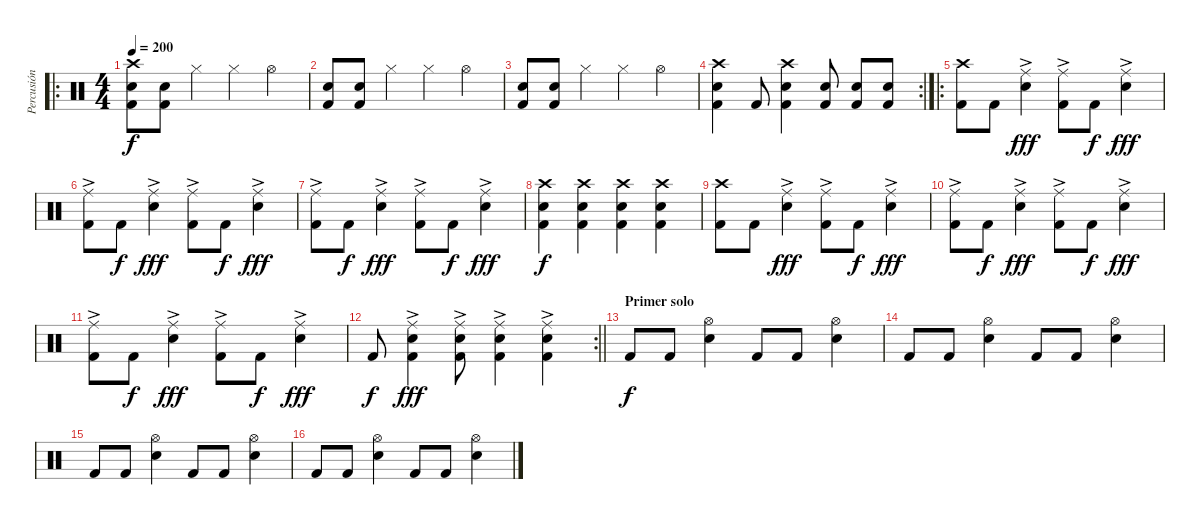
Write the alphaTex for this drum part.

\track ("Percusión" "Percusión") {instrument percussion}
\staff {score}
\articulation defaults
\ro
\ts (4 4)
\tempo 200
\clef neutral
\ks c
("Crash high (hit)" "Snare (hit) 2" "Kick (hit) 2").8{dy f} ("Snare (hit) 2" "Kick (hit) 2").8 "Hi-Hat (closed)".4 "Hi-Hat (closed)".4 "Hi-Hat (open)".4 |
("Snare (hit) 2" "Kick (hit) 2").8 ("Snare (hit) 2" "Kick (hit) 2").8 "Hi-Hat (closed)".4 "Hi-Hat (closed)".4 "Hi-Hat (open)".4 |
("Snare (hit) 2" "Kick (hit) 2").8 ("Snare (hit) 2" "Kick (hit) 2").8 "Hi-Hat (closed)".4 "Hi-Hat (closed)".4 "Hi-Hat (open)".4 |
\rc 2
("Crash high (hit)" "Snare (hit) 2" "Kick (hit) 2").4 "Kick (hit) 2".8 ("Crash high (hit)" "Snare (hit) 2" "Kick (hit) 2").4 ("Snare (hit) 2" "Kick (hit) 2").8 ("Snare (hit) 2" "Kick (hit) 2").8 ("Snare (hit) 2" "Kick (hit) 2").8 |
\ro
("Crash high (hit)" "Kick (hit) 2").8 "Kick (hit) 2".8 ("Ride (middle)"{ac} "Snare (hit) 2").4{dy fff} ("Ride (middle)"{ac} "Kick (hit) 2").8 "Kick (hit) 2".8{dy f} ("Ride (middle)"{ac} "Snare (hit) 2").4{dy fff} |
("Ride (middle)"{ac} "Kick (hit) 2").8 "Kick (hit) 2".8{dy f} ("Ride (middle)"{ac} "Snare (hit) 2").4{dy fff} ("Ride (middle)"{ac} "Kick (hit) 2").8 "Kick (hit) 2".8{dy f} ("Ride (middle)"{ac} "Snare (hit) 2").4{dy fff} |
("Ride (middle)"{ac} "Kick (hit) 2").8 "Kick (hit) 2".8{dy f} ("Ride (middle)"{ac} "Snare (hit) 2").4{dy fff} ("Ride (middle)"{ac} "Kick (hit) 2").8 "Kick (hit) 2".8{dy f} ("Ride (middle)"{ac} "Snare (hit) 2").4{dy fff} |
("Crash high (hit)" "Snare (hit) 2" "Kick (hit) 2").4{dy f} ("Crash high (hit)" "Snare (hit) 2" "Kick (hit) 2").4 ("Crash high (hit)" "Snare (hit) 2" "Kick (hit) 2").4 ("Crash high (hit)" "Snare (hit) 2" "Kick (hit) 2").4 |
("Crash high (hit)" "Kick (hit) 2").8 "Kick (hit) 2".8 ("Ride (middle)"{ac} "Snare (hit) 2").4{dy fff} ("Ride (middle)"{ac} "Kick (hit) 2").8 "Kick (hit) 2".8{dy f} ("Ride (middle)"{ac} "Snare (hit) 2").4{dy fff} |
("Ride (middle)"{ac} "Kick (hit) 2").8 "Kick (hit) 2".8{dy f} ("Ride (middle)"{ac} "Snare (hit) 2").4{dy fff} ("Ride (middle)"{ac} "Kick (hit) 2").8 "Kick (hit) 2".8{dy f} ("Ride (middle)"{ac} "Snare (hit) 2").4{dy fff} |
("Ride (middle)"{ac} "Kick (hit) 2").8 "Kick (hit) 2".8{dy f} ("Ride (middle)"{ac} "Snare (hit) 2").4{dy fff} ("Ride (middle)"{ac} "Kick (hit) 2").8 "Kick (hit) 2".8{dy f} ("Ride (middle)"{ac} "Snare (hit) 2").4{dy fff} |
\rc 2
\barLineRight lightlight "Kick (hit) 2".8{dy f}
("Ride (middle)"{ac} "Snare (hit) 2" "Kick (hit) 2").4{dy fff} ("Ride (middle)"{ac} "Snare (hit) 2" "Kick (hit) 2").8 ("Ride (middle)"{ac} "Snare (hit) 2" "Kick (hit) 2").4 ("Ride (middle)"{ac} "Snare (hit) 2" "Kick (hit) 2").4 |
\section ("" "Primer solo")
"Kick (hit) 2".8{dy f} "Kick (hit) 2".8 ("Hi-Hat (open)" "Snare (hit) 2").4 "Kick (hit) 2".8 "Kick (hit) 2".8 ("Hi-Hat (open)" "Snare (hit) 2").4 |
"Kick (hit) 2".8 "Kick (hit) 2".8 ("Hi-Hat (open)" "Snare (hit) 2").4 "Kick (hit) 2".8 "Kick (hit) 2".8 ("Hi-Hat (open)" "Snare (hit) 2").4 |
"Kick (hit) 2".8 "Kick (hit) 2".8 ("Hi-Hat (open)" "Snare (hit) 2").4 "Kick (hit) 2".8 "Kick (hit) 2".8 ("Hi-Hat (open)" "Snare (hit) 2").4 |
"Kick (hit) 2".8 "Kick (hit) 2".8 ("Hi-Hat (open)" "Snare (hit) 2").4 "Kick (hit) 2".8 "Kick (hit) 2".8 ("Hi-Hat (open)" "Snare (hit) 2").4
